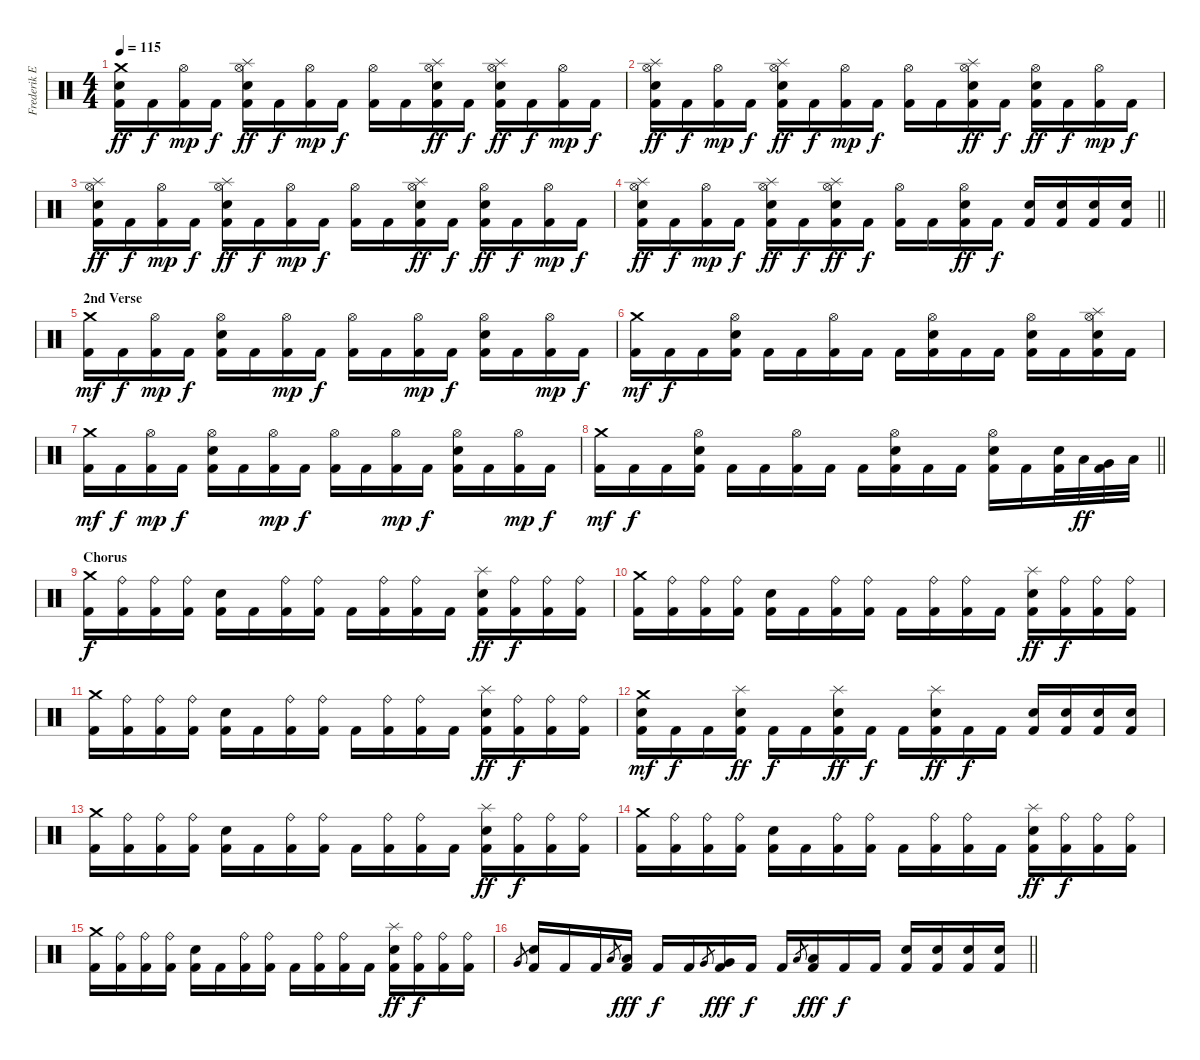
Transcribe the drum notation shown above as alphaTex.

\track ("Frederik Ehmke" "Frederik E") {instrument percussion}
\staff {score}
\articulation defaults
\ts (4 4)
\tempo 115
\clef neutral
\ks c
("Crash medium (hit)" "Electric Snare (hit)" "Kick (hit) 2").16{dy ff} "Kick (hit) 2".16{dy f} ("Hi-Hat (open)" "Kick (hit) 2").16{dy mp} "Kick (hit) 2".16{dy f} ("Hi-Hat (open)" "Splash (hit)" "Electric Snare (hit)" "Kick (hit) 2").16{dy ff} "Kick (hit) 2".16{dy f} ("Hi-Hat (open)" "Kick (hit) 2").16{dy mp} "Kick (hit) 2".16{dy f} ("Hi-Hat (open)" "Kick (hit) 2").16 "Kick (hit) 2".16 ("Hi-Hat (open)" "Splash (hit)" "Electric Snare (hit)" "Kick (hit) 2").16{dy ff} "Kick (hit) 2".16{dy f} ("Hi-Hat (open)" "Splash (hit)" "Electric Snare (hit)" "Kick (hit) 2").16{dy ff} "Kick (hit) 2".16{dy f} ("Hi-Hat (open)" "Kick (hit) 2").16{dy mp} "Kick (hit) 2".16{dy f} |
("Hi-Hat (open)" "Splash (hit)" "Electric Snare (hit)" "Kick (hit) 2").16{dy ff} "Kick (hit) 2".16{dy f} ("Hi-Hat (open)" "Kick (hit) 2").16{dy mp} "Kick (hit) 2".16{dy f} ("Hi-Hat (open)" "Splash (hit)" "Electric Snare (hit)" "Kick (hit) 2").16{dy ff} "Kick (hit) 2".16{dy f} ("Hi-Hat (open)" "Kick (hit) 2").16{dy mp} "Kick (hit) 2".16{dy f} ("Hi-Hat (open)" "Kick (hit) 2").16 "Kick (hit) 2".16 ("Hi-Hat (open)" "Splash (hit)" "Electric Snare (hit)" "Kick (hit) 2").16{dy ff} "Kick (hit) 2".16{dy f} ("Hi-Hat (open)" "Electric Snare (hit)" "Kick (hit) 2").16{dy ff} "Kick (hit) 2".16{dy f} ("Hi-Hat (open)" "Kick (hit) 2").16{dy mp} "Kick (hit) 2".16{dy f} |
("Hi-Hat (open)" "Splash (hit)" "Electric Snare (hit)" "Kick (hit) 2").16{dy ff} "Kick (hit) 2".16{dy f} ("Hi-Hat (open)" "Kick (hit) 2").16{dy mp} "Kick (hit) 2".16{dy f} ("Hi-Hat (open)" "Splash (hit)" "Electric Snare (hit)" "Kick (hit) 2").16{dy ff} "Kick (hit) 2".16{dy f} ("Hi-Hat (open)" "Kick (hit) 2").16{dy mp} "Kick (hit) 2".16{dy f} ("Hi-Hat (open)" "Kick (hit) 2").16 "Kick (hit) 2".16 ("Hi-Hat (open)" "Splash (hit)" "Electric Snare (hit)" "Kick (hit) 2").16{dy ff} "Kick (hit) 2".16{dy f} ("Hi-Hat (open)" "Electric Snare (hit)" "Kick (hit) 2").16{dy ff} "Kick (hit) 2".16{dy f} ("Hi-Hat (open)" "Kick (hit) 2").16{dy mp} "Kick (hit) 2".16{dy f} |
\barLineRight lightlight
("Hi-Hat (open)" "Splash (hit)" "Electric Snare (hit)" "Kick (hit) 2").16{dy ff} "Kick (hit) 2".16{dy f} ("Hi-Hat (open)" "Kick (hit) 2").16{dy mp} "Kick (hit) 2".16{dy f} ("Hi-Hat (open)" "Splash (hit)" "Electric Snare (hit)" "Kick (hit) 2").16{dy ff} "Kick (hit) 2".16{dy f} ("Hi-Hat (open)" "Splash (hit)" "Electric Snare (hit)" "Kick (hit) 2").16{dy ff} "Kick (hit) 2".16{dy f} ("Hi-Hat (open)" "Kick (hit) 2").16 "Kick (hit) 2".16 ("Hi-Hat (open)" "Electric Snare (hit)" "Kick (hit) 2").16{dy ff} "Kick (hit) 2".16{dy f} ("Electric Snare (hit)" "Kick (hit) 2").16 ("Electric Snare (hit)" "Kick (hit) 2").16 ("Electric Snare (hit)" "Kick (hit) 2").16 ("Electric Snare (hit)" "Kick (hit) 2").16 |
\section ("" "2nd Verse")
("Crash medium (hit)" "Kick (hit) 2").16{dy mf} "Kick (hit) 2".16{dy f} ("Hi-Hat (open)" "Kick (hit) 2").16{dy mp} "Kick (hit) 2".16{dy f} ("Hi-Hat (open)" "Electric Snare (hit)" "Kick (hit) 2").16 "Kick (hit) 2".16 ("Hi-Hat (open)" "Kick (hit) 2").16{dy mp} "Kick (hit) 2".16{dy f} ("Hi-Hat (open)" "Kick (hit) 2").16 "Kick (hit) 2".16 ("Hi-Hat (open)" "Kick (hit) 2").16{dy mp} "Kick (hit) 2".16{dy f} ("Hi-Hat (open)" "Electric Snare (hit)" "Kick (hit) 2").16 "Kick (hit) 2".16 ("Hi-Hat (open)" "Kick (hit) 2").16{dy mp} "Kick (hit) 2".16{dy f} |
("Crash medium (hit)" "Kick (hit) 2").16{dy mf} "Kick (hit) 2".16{dy f} "Kick (hit) 2".16 ("Hi-Hat (open)" "Electric Snare (hit)" "Kick (hit) 2").16 "Kick (hit) 2".16 "Kick (hit) 2".16 ("Hi-Hat (open)" "Kick (hit) 2").16 "Kick (hit) 2".16 "Kick (hit) 2".16 ("Hi-Hat (open)" "Electric Snare (hit)" "Kick (hit) 2").16 "Kick (hit) 2".16 "Kick (hit) 2".16 ("Hi-Hat (open)" "Electric Snare (hit)" "Kick (hit) 2").16 "Kick (hit) 2".16 ("Hi-Hat (open)" "Splash (hit)" "Electric Snare (hit)" "Kick (hit) 2").16 "Kick (hit) 2".16 |
("Crash medium (hit)" "Kick (hit) 2").16{dy mf} "Kick (hit) 2".16{dy f} ("Hi-Hat (open)" "Kick (hit) 2").16{dy mp} "Kick (hit) 2".16{dy f} ("Hi-Hat (open)" "Electric Snare (hit)" "Kick (hit) 2").16 "Kick (hit) 2".16 ("Hi-Hat (open)" "Kick (hit) 2").16{dy mp} "Kick (hit) 2".16{dy f} ("Hi-Hat (open)" "Kick (hit) 2").16 "Kick (hit) 2".16 ("Hi-Hat (open)" "Kick (hit) 2").16{dy mp} "Kick (hit) 2".16{dy f} ("Hi-Hat (open)" "Electric Snare (hit)" "Kick (hit) 2").16 "Kick (hit) 2".16 ("Hi-Hat (open)" "Kick (hit) 2").16{dy mp} "Kick (hit) 2".16{dy f} |
\barLineRight lightlight
("Crash medium (hit)" "Kick (hit) 2").16{dy mf} "Kick (hit) 2".16{dy f} "Kick (hit) 2".16 ("Hi-Hat (open)" "Electric Snare (hit)" "Kick (hit) 2").16 "Kick (hit) 2".16 "Kick (hit) 2".16 ("Hi-Hat (open)" "Kick (hit) 2").16 "Kick (hit) 2".16 "Kick (hit) 2".16 ("Hi-Hat (open)" "Electric Snare (hit)" "Kick (hit) 2").16 "Kick (hit) 2".16 "Kick (hit) 2".16 ("Hi-Hat (open)" "Electric Snare (hit)" "Kick (hit) 2").16 "Kick (hit) 2".16 ("Electric Snare (hit)" "Kick (hit) 2").32 "Low Tom (hit)".32{dy ff} ("Very Low Tom (hit)" "Kick (hit) 2").32 "Low Floor Tom (hit)".32 |
\section ("" "Chorus")
("Crash medium (hit)" "Kick (hit) 2").16{dy f} ("Ride (bell)" "Kick (hit) 2").16 ("Ride (bell)" "Kick (hit) 2").16 ("Ride (bell)" "Kick (hit) 2").16 ("Electric Snare (hit)" "Kick (hit) 2").16 "Kick (hit) 2".16 ("Ride (bell)" "Kick (hit) 2").16 ("Ride (bell)" "Kick (hit) 2").16 "Kick (hit) 2".16 ("Ride (bell)" "Kick (hit) 2").16 ("Ride (bell)" "Kick (hit) 2").16 "Kick (hit) 2".16 ("Splash (hit)" "Electric Snare (hit)" "Kick (hit) 2").16{dy ff} ("Ride (bell)" "Kick (hit) 2").16{dy f} ("Ride (bell)" "Kick (hit) 2").16 ("Ride (bell)" "Kick (hit) 2").16 |
("Crash medium (hit)" "Kick (hit) 2").16 ("Ride (bell)" "Kick (hit) 2").16 ("Ride (bell)" "Kick (hit) 2").16 ("Ride (bell)" "Kick (hit) 2").16 ("Electric Snare (hit)" "Kick (hit) 2").16 "Kick (hit) 2".16 ("Ride (bell)" "Kick (hit) 2").16 ("Ride (bell)" "Kick (hit) 2").16 "Kick (hit) 2".16 ("Ride (bell)" "Kick (hit) 2").16 ("Ride (bell)" "Kick (hit) 2").16 "Kick (hit) 2".16 ("Splash (hit)" "Electric Snare (hit)" "Kick (hit) 2").16{dy ff} ("Ride (bell)" "Kick (hit) 2").16{dy f} ("Ride (bell)" "Kick (hit) 2").16 ("Ride (bell)" "Kick (hit) 2").16 |
("Crash medium (hit)" "Kick (hit) 2").16 ("Ride (bell)" "Kick (hit) 2").16 ("Ride (bell)" "Kick (hit) 2").16 ("Ride (bell)" "Kick (hit) 2").16 ("Electric Snare (hit)" "Kick (hit) 2").16 "Kick (hit) 2".16 ("Ride (bell)" "Kick (hit) 2").16 ("Ride (bell)" "Kick (hit) 2").16 "Kick (hit) 2".16 ("Ride (bell)" "Kick (hit) 2").16 ("Ride (bell)" "Kick (hit) 2").16 "Kick (hit) 2".16 ("Splash (hit)" "Electric Snare (hit)" "Kick (hit) 2").16{dy ff} ("Ride (bell)" "Kick (hit) 2").16{dy f} ("Ride (bell)" "Kick (hit) 2").16 ("Ride (bell)" "Kick (hit) 2").16 |
("Crash medium (hit)" "Electric Snare (hit)" "Kick (hit) 2").16{dy mf} "Kick (hit) 2".16{dy f} "Kick (hit) 2".16 ("Splash (hit)" "Electric Snare (hit)" "Kick (hit) 2").16{dy ff} "Kick (hit) 2".16{dy f} "Kick (hit) 2".16 ("Splash (hit)" "Electric Snare (hit)" "Kick (hit) 2").16{dy ff} "Kick (hit) 2".16{dy f} "Kick (hit) 2".16 ("Splash (hit)" "Electric Snare (hit)" "Kick (hit) 2").16{dy ff} "Kick (hit) 2".16{dy f} "Kick (hit) 2".16 ("Electric Snare (hit)" "Kick (hit) 2").16 ("Electric Snare (hit)" "Kick (hit) 2").16 ("Electric Snare (hit)" "Kick (hit) 2").16 ("Electric Snare (hit)" "Kick (hit) 2").16 |
("Crash medium (hit)" "Kick (hit) 2").16 ("Ride (bell)" "Kick (hit) 2").16 ("Ride (bell)" "Kick (hit) 2").16 ("Ride (bell)" "Kick (hit) 2").16 ("Electric Snare (hit)" "Kick (hit) 2").16 "Kick (hit) 2".16 ("Ride (bell)" "Kick (hit) 2").16 ("Ride (bell)" "Kick (hit) 2").16 "Kick (hit) 2".16 ("Ride (bell)" "Kick (hit) 2").16 ("Ride (bell)" "Kick (hit) 2").16 "Kick (hit) 2".16 ("Splash (hit)" "Electric Snare (hit)" "Kick (hit) 2").16{dy ff} ("Ride (bell)" "Kick (hit) 2").16{dy f} ("Ride (bell)" "Kick (hit) 2").16 ("Ride (bell)" "Kick (hit) 2").16 |
("Crash medium (hit)" "Kick (hit) 2").16 ("Ride (bell)" "Kick (hit) 2").16 ("Ride (bell)" "Kick (hit) 2").16 ("Ride (bell)" "Kick (hit) 2").16 ("Electric Snare (hit)" "Kick (hit) 2").16 "Kick (hit) 2".16 ("Ride (bell)" "Kick (hit) 2").16 ("Ride (bell)" "Kick (hit) 2").16 "Kick (hit) 2".16 ("Ride (bell)" "Kick (hit) 2").16 ("Ride (bell)" "Kick (hit) 2").16 "Kick (hit) 2".16 ("Splash (hit)" "Electric Snare (hit)" "Kick (hit) 2").16{dy ff} ("Ride (bell)" "Kick (hit) 2").16{dy f} ("Ride (bell)" "Kick (hit) 2").16 ("Ride (bell)" "Kick (hit) 2").16 |
("Crash medium (hit)" "Kick (hit) 2").16 ("Ride (bell)" "Kick (hit) 2").16 ("Ride (bell)" "Kick (hit) 2").16 ("Ride (bell)" "Kick (hit) 2").16 ("Electric Snare (hit)" "Kick (hit) 2").16 "Kick (hit) 2".16 ("Ride (bell)" "Kick (hit) 2").16 ("Ride (bell)" "Kick (hit) 2").16 "Kick (hit) 2".16 ("Ride (bell)" "Kick (hit) 2").16 ("Ride (bell)" "Kick (hit) 2").16 "Kick (hit) 2".16 ("Splash (hit)" "Electric Snare (hit)" "Kick (hit) 2").16{dy ff} ("Ride (bell)" "Kick (hit) 2").16{dy f} ("Ride (bell)" "Kick (hit) 2").16 ("Ride (bell)" "Kick (hit) 2").16 |
\barLineRight lightlight "Very Low Tom (hit)".8{gr}
("Electric Snare (hit)" "Kick (hit) 2").16 "Kick (hit) 2".16 "Kick (hit) 2".16 "Low Tom (hit)".8{gr} ("Low Tom (hit)" "Kick (hit) 2").16{dy fff} "Kick (hit) 2".16{dy f} "Kick (hit) 2".16 "Very Low Tom (hit)".8{gr} ("Very Low Tom (hit)" "Kick (hit) 2").16{dy fff} "Kick (hit) 2".16{dy f} "Kick (hit) 2".16 "Low Floor Tom (hit)".8{gr} ("Low Floor Tom (hit)" "Kick (hit) 2").16{dy fff} "Kick (hit) 2".16{dy f} "Kick (hit) 2".16 ("Electric Snare (hit)" "Kick (hit) 2").16 ("Electric Snare (hit)" "Kick (hit) 2").16 ("Electric Snare (hit)" "Kick (hit) 2").16 ("Electric Snare (hit)" "Kick (hit) 2").16
